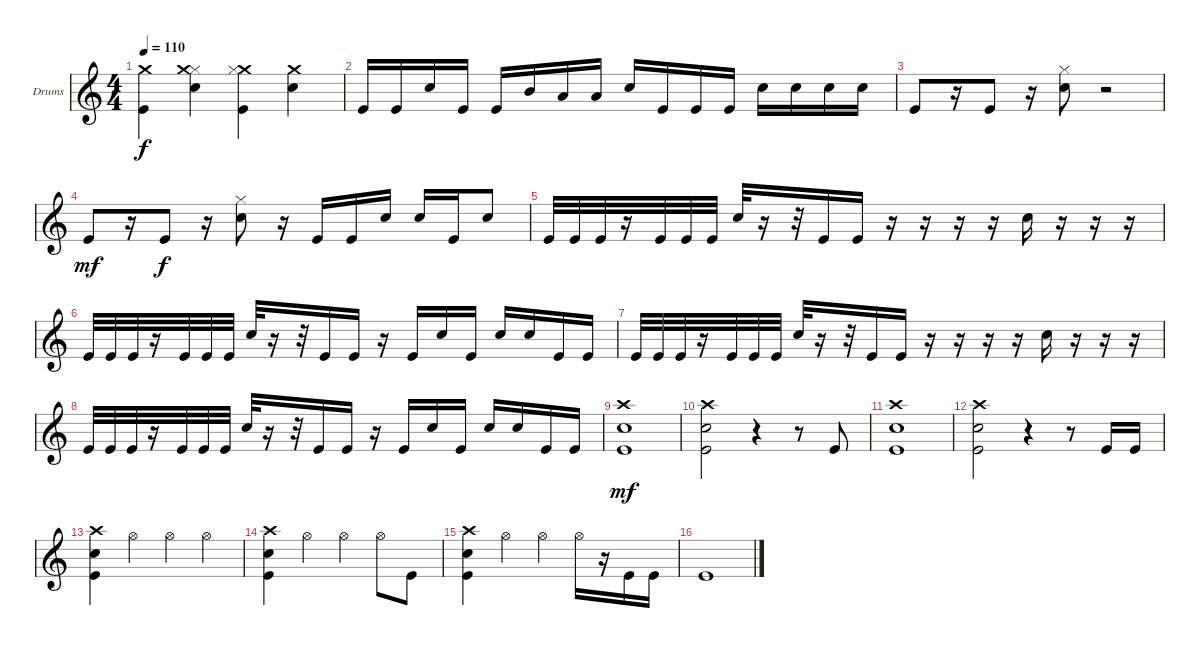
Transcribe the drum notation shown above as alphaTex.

\defaultSystemsLayout 4
\bracketExtendMode groupsimilarinstruments
\firstSystemTrackNameOrientation horizontal
\otherSystemsTrackNameOrientation horizontal
\track ("Drumkit" "Drums") {instrument percussion}
\staff {score}
\articulation defaults
\ts (4 4)
\tempo 110
\clef g2
\ks c
("Kick (hit)" "Crash medium (hit)").4{dy f} ("Snare (hit) 2" "Hi-Hat (closed)" "Crash medium (hit)").4 ("Kick (hit)" "Crash medium (hit)" "Hi-Hat (closed)").4 ("Snare (hit) 2" "Crash medium (hit)").4 |
"Kick (hit)".16 "Kick (hit)".16 "Snare (hit) 2".16 "Kick (hit)".16 "Kick (hit)".16 "Mid Tom (hit)".16 "Low Tom (hit)".16 "Low Tom (hit)".16 "Snare (hit) 2".16 "Kick (hit)".16 "Kick (hit)".16 "Kick (hit)".16 "Snare (hit) 2".16 "Snare (hit) 2".16 "Snare (hit) 2".16 "Snare (hit) 2".16 |
"Kick (hit)".8 r.16 "Kick (hit)".8 r.16 ("Snare (hit) 2" "Hi-Hat (closed)").8 r.2 |
"Kick (hit)".8{dy mf} r.16 "Kick (hit)".8{dy f} r.16 ("Snare (hit) 2" "Hi-Hat (closed)").8 r.16 "Kick (hit)".16 "Kick (hit)".16 "Snare (hit) 2".16 "Snare (hit) 2".16 "Kick (hit)".16 "Snare (hit) 2".8 |
"Kick (hit)".32 "Kick (hit)".32 "Kick (hit)".32 r.16 "Kick (hit)".32 "Kick (hit)".32 "Kick (hit)".32 "Snare (hit) 2".32 r.16 r.32 "Kick (hit)".16 "Kick (hit)".16 r.16 r.16 r.16 r.16 "Snare (hit) 2".16 r.16 r.16 r.16 |
"Kick (hit)".32 "Kick (hit)".32 "Kick (hit)".32 r.16 "Kick (hit)".32 "Kick (hit)".32 "Kick (hit)".32 "Snare (hit) 2".32 r.16 r.32 "Kick (hit)".16 "Kick (hit)".16 r.16 "Kick (hit)".16 "Snare (hit) 2".16 "Kick (hit)".16 "Snare (hit) 2".16 "Snare (hit) 2".16 "Kick (hit)".16 "Kick (hit)".16 |
"Kick (hit)".32 "Kick (hit)".32 "Kick (hit)".32 r.16 "Kick (hit)".32 "Kick (hit)".32 "Kick (hit)".32 "Snare (hit) 2".32 r.16 r.32 "Kick (hit)".16 "Kick (hit)".16 r.16 r.16 r.16 r.16 "Snare (hit) 2".16 r.16 r.16 r.16 |
"Kick (hit)".32 "Kick (hit)".32 "Kick (hit)".32 r.16 "Kick (hit)".32 "Kick (hit)".32 "Kick (hit)".32 "Snare (hit) 2".32 r.16 r.32 "Kick (hit)".16 "Kick (hit)".16 r.16 "Kick (hit)".16 "Snare (hit) 2".16 "Kick (hit)".16 "Snare (hit) 2".16 "Snare (hit) 2".16 "Kick (hit)".16 "Kick (hit)".16 |
("Kick (hit)" "Snare (hit) 2" "Crash high (hit)").1{dy mf} |
("Kick (hit)" "Snare (hit) 2" "Crash high (hit)").2 r.4 r.8 "Kick (hit)".8 |
("Kick (hit)" "Snare (hit) 2" "Crash high (hit)").1 |
("Kick (hit)" "Snare (hit) 2" "Crash high (hit)").2 r.4 r.8 "Kick (hit)".16 "Kick (hit)".16 |
("Kick (hit)" "Snare (hit) 2" "Crash high (hit)").4 "Hi-Hat (open)".4 "Hi-Hat (open)".4 "Hi-Hat (open)".4 |
("Kick (hit)" "Snare (hit) 2" "Crash high (hit)").4 "Hi-Hat (open)".4 "Hi-Hat (open)".4 "Hi-Hat (open)".8 "Kick (hit)".8 |
("Kick (hit)" "Snare (hit) 2" "Crash high (hit)").4 "Hi-Hat (open)".4 "Hi-Hat (open)".4 "Hi-Hat (open)".16 r.16 "Kick (hit)".16 "Kick (hit)".16 |
"Kick (hit)".1
